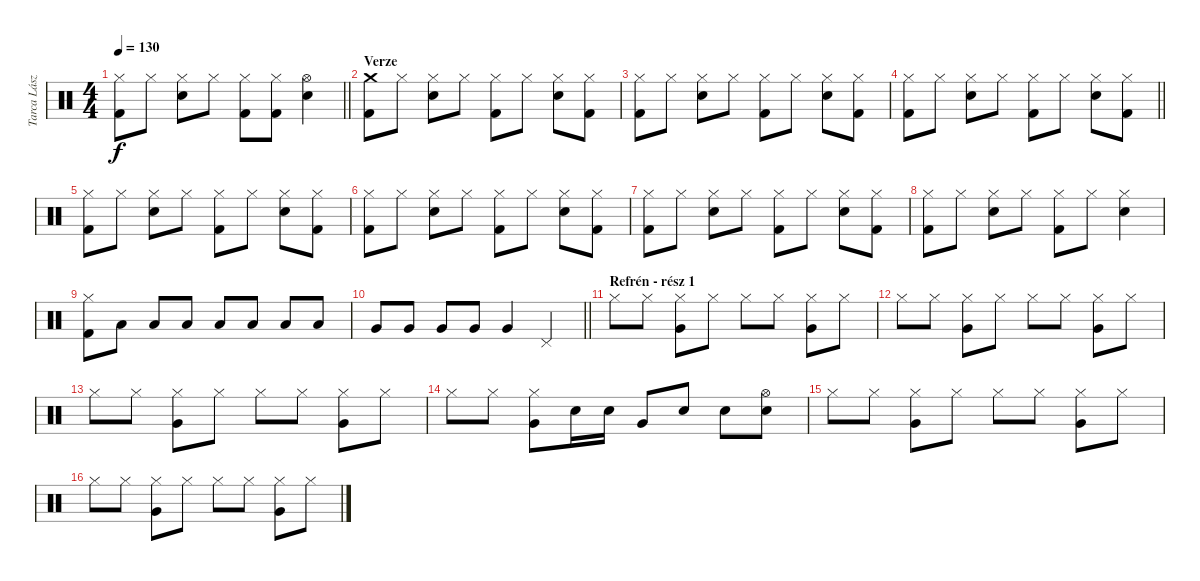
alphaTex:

\track ("Tarca László - dob" "Tarca Lász") {instrument percussion}
\staff {score}
\articulation defaults
\ts (4 4)
\tempo 130
\clef neutral
\barLineRight lightlight
\ks c
("Hi-Hat (closed)" "Kick (hit) 2").8{dy f} "Hi-Hat (closed)".8 ("Hi-Hat (closed)" "Snare (hit) 2").8 "Hi-Hat (closed)".8 ("Hi-Hat (closed)" "Kick (hit) 2").8 ("Hi-Hat (closed)" "Kick (hit) 2").8 ("Hi-Hat (open)" "Snare (hit) 2").4 |
\section ("" "Verze")
("Crash medium (hit)" "Kick (hit) 2").8 "Hi-Hat (closed)".8 ("Hi-Hat (closed)" "Snare (hit) 2").8 "Hi-Hat (closed)".8 ("Hi-Hat (closed)" "Kick (hit) 2").8 "Hi-Hat (closed)".8 ("Hi-Hat (closed)" "Snare (hit) 2").8 ("Hi-Hat (closed)" "Kick (hit) 2").8 |
("Hi-Hat (closed)" "Kick (hit) 2").8 "Hi-Hat (closed)".8 ("Hi-Hat (closed)" "Snare (hit) 2").8 "Hi-Hat (closed)".8 ("Hi-Hat (closed)" "Kick (hit) 2").8 "Hi-Hat (closed)".8 ("Hi-Hat (closed)" "Snare (hit) 2").8 ("Hi-Hat (closed)" "Kick (hit) 2").8 |
\barLineRight lightlight
("Hi-Hat (closed)" "Kick (hit) 2").8 "Hi-Hat (closed)".8 ("Hi-Hat (closed)" "Snare (hit) 2").8 "Hi-Hat (closed)".8 ("Hi-Hat (closed)" "Kick (hit) 2").8 "Hi-Hat (closed)".8 ("Hi-Hat (closed)" "Snare (hit) 2").8 ("Hi-Hat (closed)" "Kick (hit) 2").8 |
("Hi-Hat (closed)" "Kick (hit) 2").8 "Hi-Hat (closed)".8 ("Hi-Hat (closed)" "Snare (hit) 2").8 "Hi-Hat (closed)".8 ("Hi-Hat (closed)" "Kick (hit) 2").8 "Hi-Hat (closed)".8 ("Hi-Hat (closed)" "Snare (hit) 2").8 ("Hi-Hat (closed)" "Kick (hit) 2").8 |
("Hi-Hat (closed)" "Kick (hit) 2").8 "Hi-Hat (closed)".8 ("Hi-Hat (closed)" "Snare (hit) 2").8 "Hi-Hat (closed)".8 ("Hi-Hat (closed)" "Kick (hit) 2").8 "Hi-Hat (closed)".8 ("Hi-Hat (closed)" "Snare (hit) 2").8 ("Hi-Hat (closed)" "Kick (hit) 2").8 |
("Hi-Hat (closed)" "Kick (hit) 2").8 "Hi-Hat (closed)".8 ("Hi-Hat (closed)" "Snare (hit) 2").8 "Hi-Hat (closed)".8 ("Hi-Hat (closed)" "Kick (hit) 2").8 "Hi-Hat (closed)".8 ("Hi-Hat (closed)" "Snare (hit) 2").8 ("Hi-Hat (closed)" "Kick (hit) 2").8 |
("Hi-Hat (closed)" "Kick (hit) 2").8 "Hi-Hat (closed)".8 ("Hi-Hat (closed)" "Snare (hit) 2").8 "Hi-Hat (closed)".8 ("Hi-Hat (closed)" "Kick (hit) 2").8 "Hi-Hat (closed)".8 ("Hi-Hat (closed)" "Snare (hit) 2").4 |
("Hi-Hat (closed)" "Kick (hit) 2").8 "Low Tom (hit)".8 "Low Tom (hit)".8 "Low Tom (hit)".8 "Low Tom (hit)".8 "Low Tom (hit)".8 "Low Tom (hit)".8 "Low Tom (hit)".8 |
\barLineRight lightlight "Very Low Tom (hit)".8 "Very Low Tom (hit)".8 "Very Low Tom (hit)".8 "Very Low Tom (hit)".8 "Very Low Tom (hit)".4 "Pedal Hi-Hat (hit)".4
|
\section ("" "Refrén - rész 1")
"Hi-Hat (closed)".8 "Hi-Hat (closed)".8 ("Hi-Hat (closed)" "Very Low Tom (hit)").8 "Hi-Hat (closed)".8 "Hi-Hat (closed)".8 "Hi-Hat (closed)".8 ("Hi-Hat (closed)" "Very Low Tom (hit)").8 "Hi-Hat (closed)".8 |
"Hi-Hat (closed)".8 "Hi-Hat (closed)".8 ("Hi-Hat (closed)" "Very Low Tom (hit)").8 "Hi-Hat (closed)".8 "Hi-Hat (closed)".8 "Hi-Hat (closed)".8 ("Hi-Hat (closed)" "Very Low Tom (hit)").8 "Hi-Hat (closed)".8 |
"Hi-Hat (closed)".8 "Hi-Hat (closed)".8 ("Hi-Hat (closed)" "Very Low Tom (hit)").8 "Hi-Hat (closed)".8 "Hi-Hat (closed)".8 "Hi-Hat (closed)".8 ("Hi-Hat (closed)" "Very Low Tom (hit)").8 "Hi-Hat (closed)".8 |
"Hi-Hat (closed)".8 "Hi-Hat (closed)".8 ("Hi-Hat (closed)" "Very Low Tom (hit)").8 "Snare (hit) 2".16 "Snare (hit) 2".16 "Very Low Tom (hit)".8 "Snare (hit) 2".8 "Snare (hit) 2".8 ("Hi-Hat (open)" "Snare (hit) 2").8 |
"Hi-Hat (closed)".8 "Hi-Hat (closed)".8 ("Hi-Hat (closed)" "Very Low Tom (hit)").8 "Hi-Hat (closed)".8 "Hi-Hat (closed)".8 "Hi-Hat (closed)".8 ("Hi-Hat (closed)" "Very Low Tom (hit)").8 "Hi-Hat (closed)".8 |
"Hi-Hat (closed)".8 "Hi-Hat (closed)".8 ("Hi-Hat (closed)" "Very Low Tom (hit)").8 "Hi-Hat (closed)".8 "Hi-Hat (closed)".8 "Hi-Hat (closed)".8 ("Hi-Hat (closed)" "Very Low Tom (hit)").8 "Hi-Hat (closed)".8
